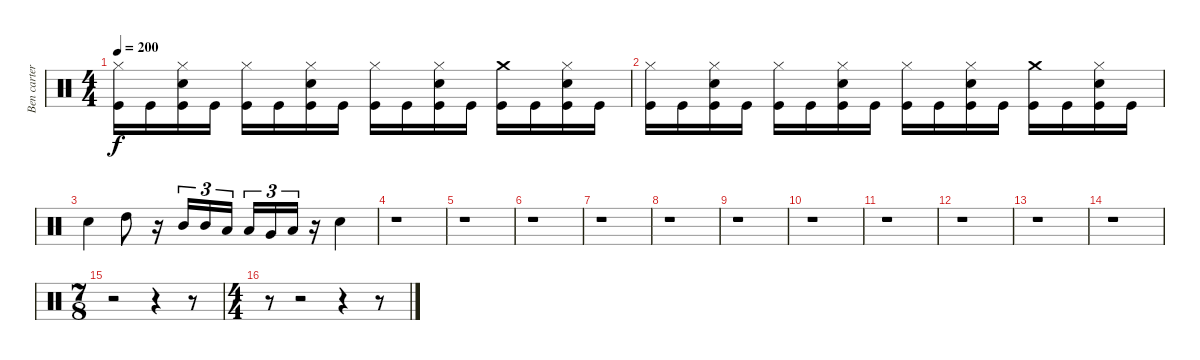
\track ("Ben carter" "Ben carter") {instrument percussion}
\staff {score}
\articulation defaults
\ts (4 4)
\tempo 200
\clef neutral
\ks c
("Hi-Hat (closed)" "Kick (hit)").16{dy f} "Kick (hit)".16 ("Hi-Hat (closed)" "Electric Snare (hit)" "Kick (hit)").16 "Kick (hit)".16 ("Hi-Hat (closed)" "Kick (hit)").16 "Kick (hit)".16 ("Hi-Hat (closed)" "Electric Snare (hit)" "Kick (hit)").16 "Kick (hit)".16 ("Hi-Hat (closed)" "Kick (hit)").16 "Kick (hit)".16 ("Hi-Hat (closed)" "Electric Snare (hit)" "Kick (hit)").16 "Kick (hit)".16 ("Crash medium (hit)" "Kick (hit)").16 "Kick (hit)".16 ("Hi-Hat (closed)" "Electric Snare (hit)" "Kick (hit)").16 "Kick (hit)".16 |
("Hi-Hat (closed)" "Kick (hit)").16 "Kick (hit)".16 ("Hi-Hat (closed)" "Electric Snare (hit)" "Kick (hit)").16 "Kick (hit)".16 ("Hi-Hat (closed)" "Kick (hit)").16 "Kick (hit)".16 ("Hi-Hat (closed)" "Electric Snare (hit)" "Kick (hit)").16 "Kick (hit)".16 ("Hi-Hat (closed)" "Kick (hit)").16 "Kick (hit)".16 ("Hi-Hat (closed)" "Electric Snare (hit)" "Kick (hit)").16 "Kick (hit)".16 ("Crash medium (hit)" "Kick (hit)").16 "Kick (hit)".16 ("Hi-Hat (closed)" "Electric Snare (hit)" "Kick (hit)").16 "Kick (hit)".16 |
"Electric Snare (hit)".4 "High Tom (hit)".8 r.16 "Mid Tom (hit)".16{tu (3 2)} "Mid Tom (hit)".16{tu (3 2)} "Low Tom (hit)".16{tu (3 2) beam splitsecondary} "Low Tom (hit)".16{tu (3 2)} "Very Low Tom (hit)".16{tu (3 2)} "Low Floor Tom (hit)".16{tu (3 2)} r.16 "Electric Snare (hit)".4 |
r.1 |
r.1 |
r.1 |
r.1 |
r.1 |
r.1 |
r.1 |
r.1 |
r.1 |
r.1 |
r.1 |
\ts (7 8)
r.2 r.4 r.8 |
\ts (4 4)
r.8 r.2 r.4 r.8
